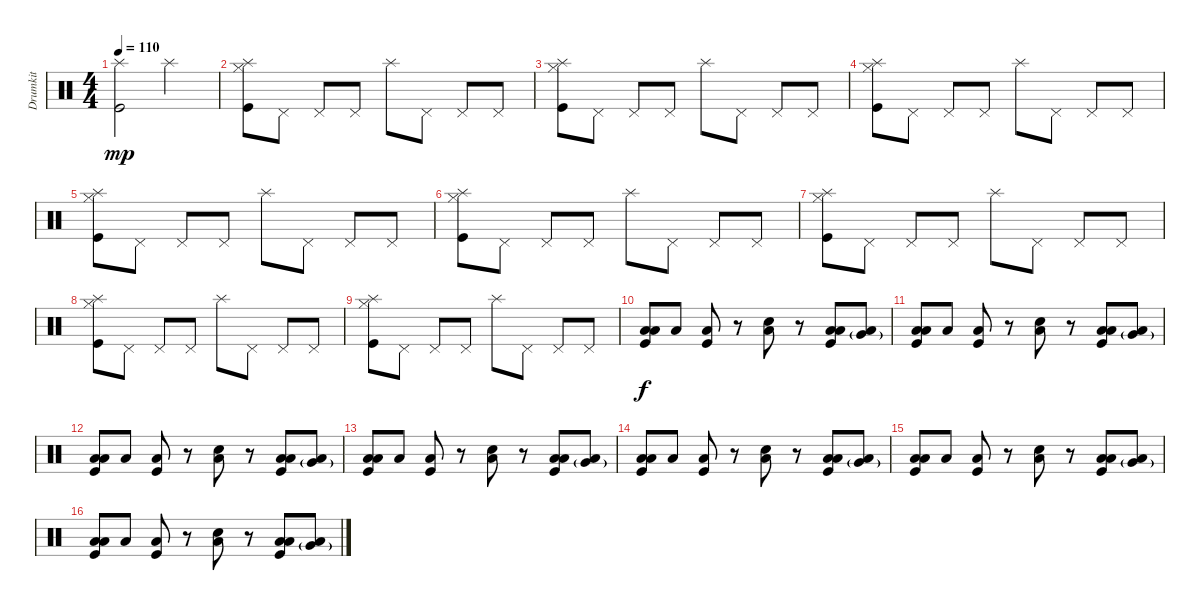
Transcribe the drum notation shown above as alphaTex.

\track ("Drumkit" "Drumkit") {instrument percussion}
\staff {score}
\articulation defaults
\ts (4 4)
\tempo 110
\clef neutral
\ks c
("Splash (hit)" "Kick (hit)").2{dy mp} "Splash (hit)".2 |
("Splash (hit)" "Hi-Hat (closed)" "Kick (hit)").8 "Pedal Hi-Hat (hit)".8 "Pedal Hi-Hat (hit)".8 "Pedal Hi-Hat (hit)".8 "Splash (hit)".8 "Pedal Hi-Hat (hit)".8 "Pedal Hi-Hat (hit)".8 "Pedal Hi-Hat (hit)".8 |
("Splash (hit)" "Hi-Hat (closed)" "Kick (hit)").8 "Pedal Hi-Hat (hit)".8 "Pedal Hi-Hat (hit)".8 "Pedal Hi-Hat (hit)".8 "Splash (hit)".8 "Pedal Hi-Hat (hit)".8 "Pedal Hi-Hat (hit)".8 "Pedal Hi-Hat (hit)".8 |
("Splash (hit)" "Hi-Hat (closed)" "Kick (hit)").8 "Pedal Hi-Hat (hit)".8 "Pedal Hi-Hat (hit)".8 "Pedal Hi-Hat (hit)".8 "Splash (hit)".8 "Pedal Hi-Hat (hit)".8 "Pedal Hi-Hat (hit)".8 "Pedal Hi-Hat (hit)".8 |
("Splash (hit)" "Hi-Hat (closed)" "Kick (hit)").8 "Pedal Hi-Hat (hit)".8 "Pedal Hi-Hat (hit)".8 "Pedal Hi-Hat (hit)".8 "Splash (hit)".8 "Pedal Hi-Hat (hit)".8 "Pedal Hi-Hat (hit)".8 "Pedal Hi-Hat (hit)".8 |
("Splash (hit)" "Hi-Hat (closed)" "Kick (hit)").8 "Pedal Hi-Hat (hit)".8 "Pedal Hi-Hat (hit)".8 "Pedal Hi-Hat (hit)".8 "Splash (hit)".8 "Pedal Hi-Hat (hit)".8 "Pedal Hi-Hat (hit)".8 "Pedal Hi-Hat (hit)".8 |
("Splash (hit)" "Hi-Hat (closed)" "Kick (hit)").8 "Pedal Hi-Hat (hit)".8 "Pedal Hi-Hat (hit)".8 "Pedal Hi-Hat (hit)".8 "Splash (hit)".8 "Pedal Hi-Hat (hit)".8 "Pedal Hi-Hat (hit)".8 "Pedal Hi-Hat (hit)".8 |
("Splash (hit)" "Hi-Hat (closed)" "Kick (hit)").8 "Pedal Hi-Hat (hit)".8 "Pedal Hi-Hat (hit)".8 "Pedal Hi-Hat (hit)".8 "Splash (hit)".8 "Pedal Hi-Hat (hit)".8 "Pedal Hi-Hat (hit)".8 "Pedal Hi-Hat (hit)".8 |
("Splash (hit)" "Hi-Hat (closed)" "Kick (hit)").8 "Pedal Hi-Hat (hit)".8 "Pedal Hi-Hat (hit)".8 "Pedal Hi-Hat (hit)".8 "Splash (hit)".8 "Pedal Hi-Hat (hit)".8 "Pedal Hi-Hat (hit)".8 "Pedal Hi-Hat (hit)".8 |
("Low Tom (hit)" "Low Floor Tom (hit)" "Kick (hit)").8{dy f} "Low Floor Tom (hit)".8 ("Low Tom (hit)" "Kick (hit)").8 r.8 ("Low Floor Tom (hit)" "Snare (hit) 2").8 r.8 ("Low Tom (hit)" "Low Floor Tom (hit)" "Kick (hit)").8 ("Very Low Tom (hit)"{g} "Low Floor Tom (hit)").8 |
("Low Tom (hit)" "Low Floor Tom (hit)" "Kick (hit)").8 "Low Floor Tom (hit)".8 ("Low Tom (hit)" "Kick (hit)").8 r.8 ("Low Floor Tom (hit)" "Snare (hit) 2").8 r.8 ("Low Tom (hit)" "Low Floor Tom (hit)" "Kick (hit)").8 ("Very Low Tom (hit)"{g} "Low Floor Tom (hit)").8 |
("Low Tom (hit)" "Low Floor Tom (hit)" "Kick (hit)").8 "Low Floor Tom (hit)".8 ("Low Tom (hit)" "Kick (hit)").8 r.8 ("Low Floor Tom (hit)" "Snare (hit) 2").8 r.8 ("Low Tom (hit)" "Low Floor Tom (hit)" "Kick (hit)").8 ("Very Low Tom (hit)"{g} "Low Floor Tom (hit)").8 |
("Low Tom (hit)" "Low Floor Tom (hit)" "Kick (hit)").8 "Low Floor Tom (hit)".8 ("Low Tom (hit)" "Kick (hit)").8 r.8 ("Low Floor Tom (hit)" "Snare (hit) 2").8 r.8 ("Low Tom (hit)" "Low Floor Tom (hit)" "Kick (hit)").8 ("Very Low Tom (hit)"{g} "Low Floor Tom (hit)").8 |
("Low Tom (hit)" "Low Floor Tom (hit)" "Kick (hit)").8 "Low Floor Tom (hit)".8 ("Low Tom (hit)" "Kick (hit)").8 r.8 ("Low Floor Tom (hit)" "Snare (hit) 2").8 r.8 ("Low Tom (hit)" "Low Floor Tom (hit)" "Kick (hit)").8 ("Very Low Tom (hit)"{g} "Low Floor Tom (hit)").8 |
("Low Tom (hit)" "Low Floor Tom (hit)" "Kick (hit)").8 "Low Floor Tom (hit)".8 ("Low Tom (hit)" "Kick (hit)").8 r.8 ("Low Floor Tom (hit)" "Snare (hit) 2").8 r.8 ("Low Tom (hit)" "Low Floor Tom (hit)" "Kick (hit)").8 ("Very Low Tom (hit)"{g} "Low Floor Tom (hit)").8 |
("Low Tom (hit)" "Low Floor Tom (hit)" "Kick (hit)").8 "Low Floor Tom (hit)".8 ("Low Tom (hit)" "Kick (hit)").8 r.8 ("Low Floor Tom (hit)" "Snare (hit) 2").8 r.8 ("Low Tom (hit)" "Low Floor Tom (hit)" "Kick (hit)").8 ("Very Low Tom (hit)"{g} "Low Floor Tom (hit)").8
